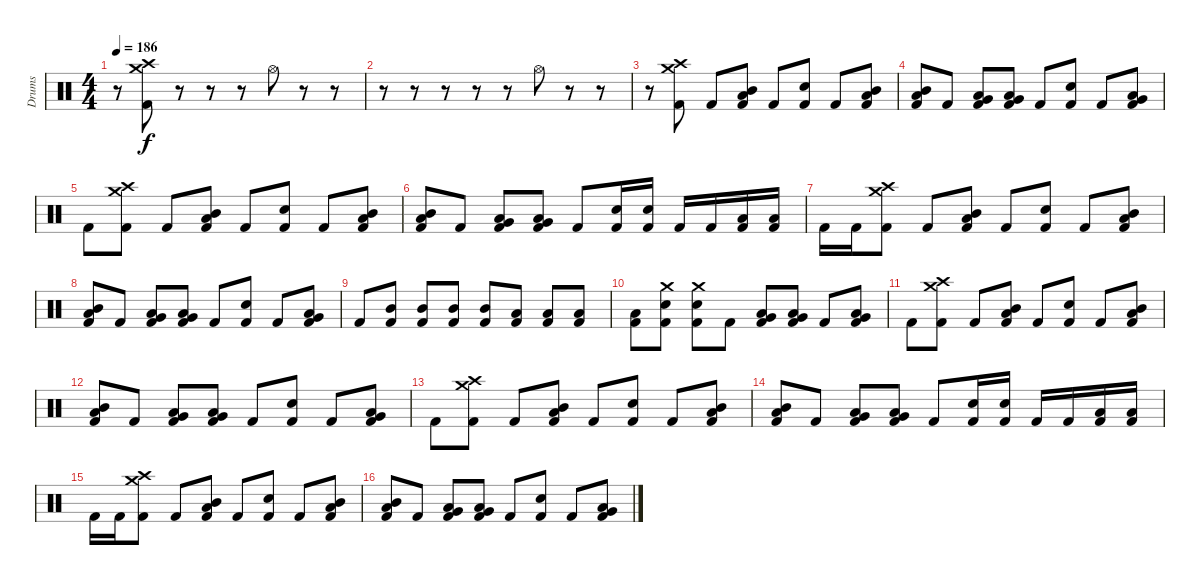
\track ("Drums" "Drums") {instrument percussion bank 177}
\staff {score}
\articulation defaults
\ts (4 4)
\tempo 186
\clef neutral
\ks c
r.8{dy f} ("Crash high (hit)" "Crash medium (hit)" "Kick (hit) 2").8 r.8 r.8 r.8 "Hi-Hat (open)".8 r.8 r.8 |
r.8 r.8 r.8 r.8 r.8 "Hi-Hat (open)".8 r.8 r.8 |
r.8 ("Crash high (hit)" "Crash medium (hit)" "Kick (hit) 2").8 "Kick (hit) 2".8 ("Low Tom (hit)" "Mid Tom (hit)" "Kick (hit) 2").8 "Kick (hit) 2".8 ("Snare (hit) 2" "Kick (hit) 2").8 "Kick (hit) 2".8 ("Low Tom (hit)" "Mid Tom (hit)" "Kick (hit) 2").8 |
("Low Tom (hit)" "Mid Tom (hit)" "Kick (hit) 2").8 "Kick (hit) 2".8 ("Very Low Tom (hit)" "Low Tom (hit)" "Kick (hit) 2").8 ("Very Low Tom (hit)" "Low Tom (hit)" "Kick (hit) 2").8 "Kick (hit) 2".8 ("Snare (hit) 2" "Kick (hit) 2").8 "Kick (hit) 2".8 ("Low Floor Tom (hit)" "Very Low Tom (hit)" "Kick (hit) 2").8 |
"Kick (hit) 2".8 ("Crash high (hit)" "Crash medium (hit)" "Kick (hit) 2").8 "Kick (hit) 2".8 ("Low Tom (hit)" "Mid Tom (hit)" "Kick (hit) 2").8 "Kick (hit) 2".8 ("Snare (hit) 2" "Kick (hit) 2").8 "Kick (hit) 2".8 ("Low Tom (hit)" "Mid Tom (hit)" "Kick (hit) 2").8 |
("Low Tom (hit)" "Mid Tom (hit)" "Kick (hit) 2").8 "Kick (hit) 2".8 ("Very Low Tom (hit)" "Low Tom (hit)" "Kick (hit) 2").8 ("Very Low Tom (hit)" "Low Tom (hit)" "Kick (hit) 2").8 "Kick (hit) 2".8 ("Snare (hit) 2" "Kick (hit) 2").16 ("Snare (hit) 2" "Kick (hit) 2").16 "Kick (hit) 2".16 "Kick (hit) 2".16 ("Low Tom (hit)" "Kick (hit) 2").16 ("Low Tom (hit)" "Kick (hit) 2").16 |
"Kick (hit) 2".16 "Kick (hit) 2".16 ("Crash high (hit)" "Crash medium (hit)" "Kick (hit) 2").8 "Kick (hit) 2".8 ("Low Tom (hit)" "Mid Tom (hit)" "Kick (hit) 2").8 "Kick (hit) 2".8 ("Snare (hit) 2" "Kick (hit) 2").8 "Kick (hit) 2".8 ("Low Tom (hit)" "Mid Tom (hit)" "Kick (hit) 2").8 |
("Low Tom (hit)" "Mid Tom (hit)" "Kick (hit) 2").8 "Kick (hit) 2".8 ("Very Low Tom (hit)" "Low Tom (hit)" "Kick (hit) 2").8 ("Very Low Tom (hit)" "Low Tom (hit)" "Kick (hit) 2").8 "Kick (hit) 2".8 ("Snare (hit) 2" "Kick (hit) 2").8 "Kick (hit) 2".8 ("Low Floor Tom (hit)" "Very Low Tom (hit)" "Kick (hit) 2").8 |
"Kick (hit) 2".8 ("Mid Tom (hit)" "Kick (hit) 2").8 ("Mid Tom (hit)" "Kick (hit) 2").8 ("Mid Tom (hit)" "Kick (hit) 2").8 ("Mid Tom (hit)" "Kick (hit) 2").8 ("Low Tom (hit)" "Kick (hit) 2").8 ("Low Tom (hit)" "Kick (hit) 2").8 ("Low Tom (hit)" "Kick (hit) 2").8 |
("Low Tom (hit)" "Kick (hit) 2").8 ("Crash medium (hit)" "Snare (hit) 2" "Kick (hit) 2").8 ("Crash medium (hit)" "Snare (hit) 2" "Kick (hit) 2").8 "Kick (hit) 2".8 ("Very Low Tom (hit)" "Low Tom (hit)" "Kick (hit) 2").8 ("Very Low Tom (hit)" "Low Tom (hit)" "Kick (hit) 2").8 "Kick (hit) 2".8 ("Low Floor Tom (hit)" "Very Low Tom (hit)" "Kick (hit) 2").8 |
"Kick (hit) 2".8 ("Crash high (hit)" "Crash medium (hit)" "Kick (hit) 2").8 "Kick (hit) 2".8 ("Low Tom (hit)" "Mid Tom (hit)" "Kick (hit) 2").8 "Kick (hit) 2".8 ("Snare (hit) 2" "Kick (hit) 2").8 "Kick (hit) 2".8 ("Low Tom (hit)" "Mid Tom (hit)" "Kick (hit) 2").8 |
("Low Tom (hit)" "Mid Tom (hit)" "Kick (hit) 2").8 "Kick (hit) 2".8 ("Very Low Tom (hit)" "Low Tom (hit)" "Kick (hit) 2").8 ("Very Low Tom (hit)" "Low Tom (hit)" "Kick (hit) 2").8 "Kick (hit) 2".8 ("Snare (hit) 2" "Kick (hit) 2").8 "Kick (hit) 2".8 ("Low Floor Tom (hit)" "Very Low Tom (hit)" "Kick (hit) 2").8 |
"Kick (hit) 2".8 ("Crash high (hit)" "Crash medium (hit)" "Kick (hit) 2").8 "Kick (hit) 2".8 ("Low Tom (hit)" "Mid Tom (hit)" "Kick (hit) 2").8 "Kick (hit) 2".8 ("Snare (hit) 2" "Kick (hit) 2").8 "Kick (hit) 2".8 ("Low Tom (hit)" "Mid Tom (hit)" "Kick (hit) 2").8 |
("Low Tom (hit)" "Mid Tom (hit)" "Kick (hit) 2").8 "Kick (hit) 2".8 ("Very Low Tom (hit)" "Low Tom (hit)" "Kick (hit) 2").8 ("Very Low Tom (hit)" "Low Tom (hit)" "Kick (hit) 2").8 "Kick (hit) 2".8 ("Snare (hit) 2" "Kick (hit) 2").16 ("Snare (hit) 2" "Kick (hit) 2").16 "Kick (hit) 2".16 "Kick (hit) 2".16 ("Low Tom (hit)" "Kick (hit) 2").16 ("Low Tom (hit)" "Kick (hit) 2").16 |
"Kick (hit) 2".16 "Kick (hit) 2".16 ("Crash high (hit)" "Crash medium (hit)" "Kick (hit) 2").8 "Kick (hit) 2".8 ("Low Tom (hit)" "Mid Tom (hit)" "Kick (hit) 2").8 "Kick (hit) 2".8 ("Snare (hit) 2" "Kick (hit) 2").8 "Kick (hit) 2".8 ("Low Tom (hit)" "Mid Tom (hit)" "Kick (hit) 2").8 |
("Low Tom (hit)" "Mid Tom (hit)" "Kick (hit) 2").8 "Kick (hit) 2".8 ("Very Low Tom (hit)" "Low Tom (hit)" "Kick (hit) 2").8 ("Very Low Tom (hit)" "Low Tom (hit)" "Kick (hit) 2").8 "Kick (hit) 2".8 ("Snare (hit) 2" "Kick (hit) 2").8 "Kick (hit) 2".8 ("Low Floor Tom (hit)" "Very Low Tom (hit)" "Kick (hit) 2").8
